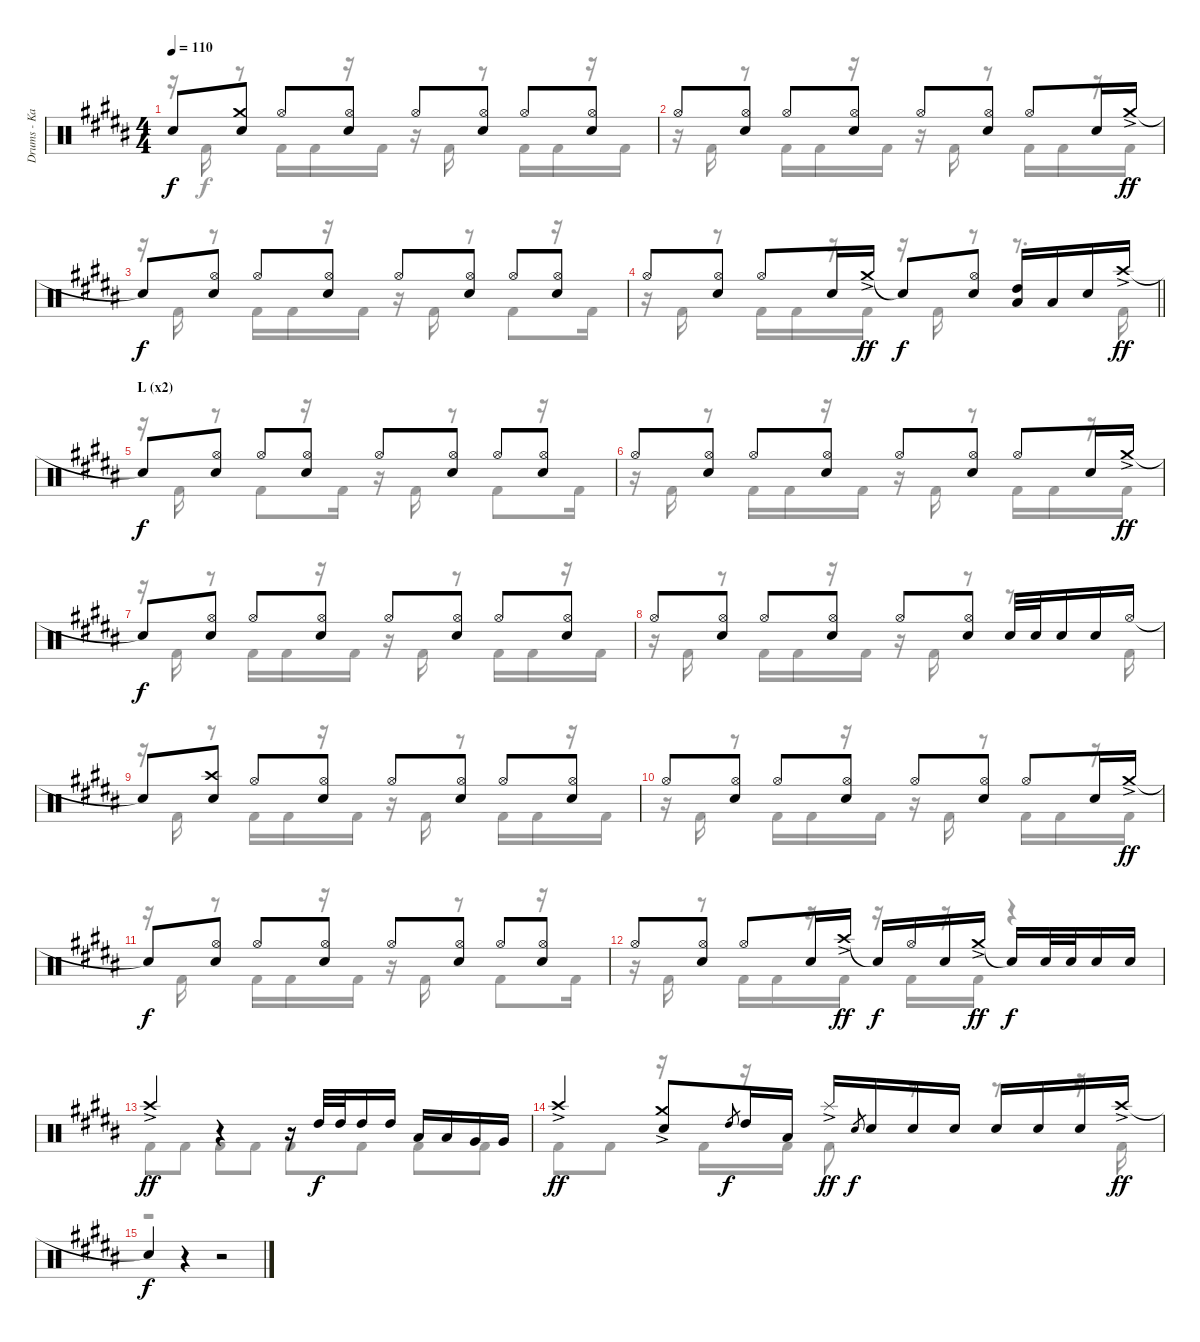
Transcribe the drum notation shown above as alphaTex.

\track ("Drums - Kai" "Drums - Ka") {instrument percussion}
\staff {score}
\articulation defaults
\voice
\ts (4 4)
\tempo 110
\clef neutral
\ks b "Snare (hit)"{t}.8{dy f}
("Crash medium (hit)" "Snare (hit) 2").8 "Hi-Hat (open)".8 ("Hi-Hat (open)" "Snare (hit) 2").8 "Hi-Hat (open)".8 ("Hi-Hat (open)" "Snare (hit) 2").8 "Hi-Hat (open)".8 ("Hi-Hat (open)" "Snare (hit) 2").8 |
"Hi-Hat (open)".8 ("Hi-Hat (open)" "Snare (hit) 2").8 "Hi-Hat (open)".8 ("Hi-Hat (open)" "Snare (hit) 2").8 "Hi-Hat (open)".8 ("Hi-Hat (open)" "Snare (hit) 2").8 "Hi-Hat (open)".8 "Snare (hit) 2".16 "Crash medium (hit)"{ac}.16{dy ff} |
"Snare (hit)"{t}.8{dy f} ("Hi-Hat (open)" "Snare (hit) 2").8 "Hi-Hat (open)".8 ("Hi-Hat (open)" "Snare (hit) 2").8 "Hi-Hat (open)".8 ("Hi-Hat (open)" "Snare (hit) 2").8 "Hi-Hat (open)".8 ("Hi-Hat (open)" "Snare (hit) 2").8 |
\barLineRight lightlight "Hi-Hat (open)".8
("Hi-Hat (open)" "Snare (hit) 2").8 "Hi-Hat (open)".8 "Snare (hit) 2".16 "Crash medium (hit)"{ac}.16{dy ff} "Snare (hit)"{t}.8{dy f} ("Hi-Hat (open)" "Snare (hit) 2").8 ("High Tom (hit)" "Low Tom (hit)").16 "Low Tom (hit)".16 "Snare (hit) 2".16 "Crash high (hit)"{ac}.16{dy ff} |
\section ("" "L (x2)")
"Snare (hit)"{t}.8{dy f} ("Hi-Hat (open)" "Snare (hit) 2").8 "Hi-Hat (open)".8 ("Hi-Hat (open)" "Snare (hit) 2").8 "Hi-Hat (open)".8 ("Hi-Hat (open)" "Snare (hit) 2").8 "Hi-Hat (open)".8 ("Hi-Hat (open)" "Snare (hit) 2").8 |
"Hi-Hat (open)".8 ("Hi-Hat (open)" "Snare (hit) 2").8 "Hi-Hat (open)".8 ("Hi-Hat (open)" "Snare (hit) 2").8 "Hi-Hat (open)".8 ("Hi-Hat (open)" "Snare (hit) 2").8 "Hi-Hat (open)".8 "Snare (hit) 2".16 "Crash medium (hit)"{ac}.16{dy ff} |
"Snare (hit)"{t}.8{dy f} ("Hi-Hat (open)" "Snare (hit) 2").8 "Hi-Hat (open)".8 ("Hi-Hat (open)" "Snare (hit) 2").8 "Hi-Hat (open)".8 ("Hi-Hat (open)" "Snare (hit) 2").8 "Hi-Hat (open)".8 ("Hi-Hat (open)" "Snare (hit) 2").8 |
"Hi-Hat (open)".8 ("Hi-Hat (open)" "Snare (hit) 2").8 "Hi-Hat (open)".8 ("Hi-Hat (open)" "Snare (hit) 2").8 "Hi-Hat (open)".8 ("Hi-Hat (open)" "Snare (hit) 2").8 "Snare (hit) 2".32 "Snare (hit) 2".32 "Snare (hit) 2".16 "Snare (hit) 2".16 "Hi-Hat (open)".16 |
"Snare (hit)"{t}.8 ("Crash high (hit)" "Snare (hit) 2").8 "Hi-Hat (open)".8 ("Hi-Hat (open)" "Snare (hit) 2").8 "Hi-Hat (open)".8 ("Hi-Hat (open)" "Snare (hit) 2").8 "Hi-Hat (open)".8 ("Hi-Hat (open)" "Snare (hit) 2").8 |
"Hi-Hat (open)".8 ("Hi-Hat (open)" "Snare (hit) 2").8 "Hi-Hat (open)".8 ("Hi-Hat (open)" "Snare (hit) 2").8 "Hi-Hat (open)".8 ("Hi-Hat (open)" "Snare (hit) 2").8 "Hi-Hat (open)".8 "Snare (hit) 2".16 "Crash medium (hit)"{ac}.16{dy ff} |
"Snare (hit)"{t}.8{dy f} ("Hi-Hat (open)" "Snare (hit) 2").8 "Hi-Hat (open)".8 ("Hi-Hat (open)" "Snare (hit) 2").8 "Hi-Hat (open)".8 ("Hi-Hat (open)" "Snare (hit) 2").8 "Hi-Hat (open)".8 ("Hi-Hat (open)" "Snare (hit) 2").8 |
"Hi-Hat (open)".8 ("Hi-Hat (open)" "Snare (hit) 2").8 "Hi-Hat (open)".8 "Snare (hit) 2".16 "Crash high (hit)"{ac}.16{dy ff} "Snare (hit)"{t}.16{dy f} "Hi-Hat (open)".16 "Snare (hit) 2".16 "Crash medium (hit)"{ac}.16{dy ff} "Snare (hit)"{t}.16{dy f} "Snare (hit) 2".32 "Snare (hit) 2".32 "Snare (hit) 2".16 "Snare (hit) 2".16 |
"Crash high (hit)"{ac}.4{dy ff} r.4 r.16 "High Tom (hit)".32{dy f} "High Tom (hit)".32 "High Tom (hit)".16 "High Tom (hit)".16 "Low Tom (hit)".16 "Low Tom (hit)".16 "Very Low Tom (hit)".16 "Very Low Tom (hit)".16 |
"Crash high (hit)"{ac}.4{dy ff} ("Crash medium (hit)"{ac} "Snare (hit) 2").8 "High Tom (hit)".8{gr dy f} "High Tom (hit)".16 "Low Tom (hit)".16 "Splash (hit)"{ac}.16{dy ff} "Snare (hit) 2".8{gr dy f} "Snare (hit) 2".16 "Snare (hit) 2".16 "Snare (hit) 2".16 "Snare (hit) 2".16 "Snare (hit) 2".16 "Snare (hit) 2".16 "Crash high (hit)"{ac}.16{dy ff} |
"Snare (hit)"{t}.4{dy f} r.4 r.2
\voice
\clef neutral
\ottava regular
\simile none
\ks b
r.16{dy f} "Kick (hit) 2".16 r.8 "Kick (hit) 2".16 "Kick (hit) 2".16 r.16 "Kick (hit) 2".16 r.16 "Kick (hit) 2".16 r.8 "Kick (hit) 2".16 "Kick (hit) 2".16 r.16 "Kick (hit) 2".16 |
r.16 "Kick (hit) 2".16 r.8 "Kick (hit) 2".16 "Kick (hit) 2".16 r.16 "Kick (hit) 2".16 r.16 "Kick (hit) 2".16 r.8 "Kick (hit) 2".16 "Kick (hit) 2".16 r.16 "Kick (hit) 2".16 |
r.16 "Kick (hit) 2".16 r.8 "Kick (hit) 2".16 "Kick (hit) 2".16 r.16 "Kick (hit) 2".16 r.16 "Kick (hit) 2".16 r.8 "Kick (hit) 2".8 r.16 "Kick (hit) 2".16 |
\barLineRight lightlight
r.16 "Kick (hit) 2".16 r.8 "Kick (hit) 2".16 "Kick (hit) 2".16 r.16 "Kick (hit) 2".16 r.16 "Kick (hit) 2".16 r.8 r.8{d} "Kick (hit) 2".16 |
r.16 "Kick (hit) 2".16 r.8 "Kick (hit) 2".8 r.16 "Kick (hit) 2".16 r.16 "Kick (hit) 2".16 r.8 "Kick (hit) 2".8 r.16 "Kick (hit) 2".16 |
r.16 "Kick (hit) 2".16 r.8 "Kick (hit) 2".16 "Kick (hit) 2".16 r.16 "Kick (hit) 2".16 r.16 "Kick (hit) 2".16 r.8 "Kick (hit) 2".16 "Kick (hit) 2".16 r.16 "Kick (hit) 2".16 |
r.16 "Kick (hit) 2".16 r.8 "Kick (hit) 2".16 "Kick (hit) 2".16 r.16 "Kick (hit) 2".16 r.16 "Kick (hit) 2".16 r.8 "Kick (hit) 2".16 "Kick (hit) 2".16 r.16 "Kick (hit) 2".16 |
r.16 "Kick (hit) 2".16 r.8 "Kick (hit) 2".16 "Kick (hit) 2".16 r.16 "Kick (hit) 2".16 r.16 "Kick (hit) 2".16 r.8 r.8{d} "Kick (hit) 2".16 |
r.16 "Kick (hit) 2".16 r.8 "Kick (hit) 2".16 "Kick (hit) 2".16 r.16 "Kick (hit) 2".16 r.16 "Kick (hit) 2".16 r.8 "Kick (hit) 2".16 "Kick (hit) 2".16 r.16 "Kick (hit) 2".16 |
r.16 "Kick (hit) 2".16 r.8 "Kick (hit) 2".16 "Kick (hit) 2".16 r.16 "Kick (hit) 2".16 r.16 "Kick (hit) 2".16 r.8 "Kick (hit) 2".16 "Kick (hit) 2".16 r.16 "Kick (hit) 2".16 |
r.16 "Kick (hit) 2".16 r.8 "Kick (hit) 2".16 "Kick (hit) 2".16 r.16 "Kick (hit) 2".16 r.16 "Kick (hit) 2".16 r.8 "Kick (hit) 2".8 r.16 "Kick (hit) 2".16 |
r.16 "Kick (hit) 2".16 r.8 "Kick (hit) 2".16 "Kick (hit) 2".16 r.16 "Kick (hit) 2".16 r.16 "Kick (hit) 2".16 r.16 "Kick (hit) 2".16 r.4 |
"Kick (hit) 2".8 "Kick (hit) 2".8 "Kick (hit) 2".8 "Kick (hit) 2".8 "Kick (hit) 2".8 "Kick (hit) 2".8 "Kick (hit) 2".8 "Kick (hit) 2".8 |
"Kick (hit) 2".8 "Kick (hit) 2".8 r.16 "Kick (hit) 2".16 r.16 "Kick (hit) 2".16 "Kick (hit) 2".8 r.8 r.8 r.16 "Kick (hit) 2".16 |
r.1
